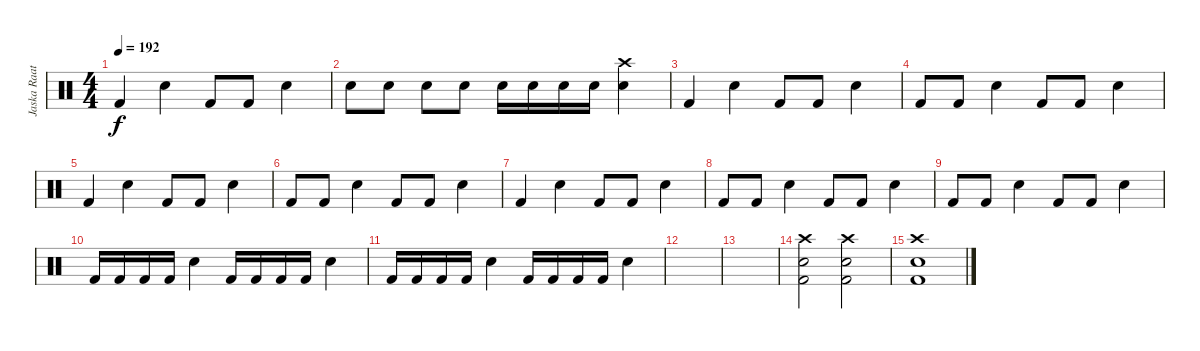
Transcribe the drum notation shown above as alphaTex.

\track ("Jaska Raatikainen" "Jaska Raat") {instrument percussion}
\staff {score}
\articulation defaults
\ts (4 4)
\tempo 192
\clef neutral
\ks c "Kick (hit) 2".4{dy f} "Snare (hit) 2".4 "Kick (hit) 2".8 "Kick (hit) 2".8 "Snare (hit) 2".4
|
"Snare (hit) 2".8 "Snare (hit) 2".8 "Snare (hit) 2".8 "Snare (hit) 2".8 "Snare (hit) 2".16 "Snare (hit) 2".16 "Snare (hit) 2".16 "Snare (hit) 2".16 ("Crash high (hit)" "Snare (hit) 2").4 |
"Kick (hit) 2".4 "Snare (hit) 2".4 "Kick (hit) 2".8 "Kick (hit) 2".8 "Snare (hit) 2".4 |
"Kick (hit) 2".8 "Kick (hit) 2".8 "Snare (hit) 2".4 "Kick (hit) 2".8 "Kick (hit) 2".8 "Snare (hit) 2".4 |
"Kick (hit) 2".4 "Snare (hit) 2".4 "Kick (hit) 2".8 "Kick (hit) 2".8 "Snare (hit) 2".4 |
"Kick (hit) 2".8 "Kick (hit) 2".8 "Snare (hit) 2".4 "Kick (hit) 2".8 "Kick (hit) 2".8 "Snare (hit) 2".4 |
"Kick (hit) 2".4 "Snare (hit) 2".4 "Kick (hit) 2".8 "Kick (hit) 2".8 "Snare (hit) 2".4 |
"Kick (hit) 2".8 "Kick (hit) 2".8 "Snare (hit) 2".4 "Kick (hit) 2".8 "Kick (hit) 2".8 "Snare (hit) 2".4 |
"Kick (hit) 2".8 "Kick (hit) 2".8 "Snare (hit) 2".4 "Kick (hit) 2".8 "Kick (hit) 2".8 "Snare (hit) 2".4 |
"Kick (hit) 2".16 "Kick (hit) 2".16 "Kick (hit) 2".16 "Kick (hit) 2".16 "Snare (hit) 2".4 "Kick (hit) 2".16 "Kick (hit) 2".16 "Kick (hit) 2".16 "Kick (hit) 2".16 "Snare (hit) 2".4 |
"Kick (hit) 2".16 "Kick (hit) 2".16 "Kick (hit) 2".16 "Kick (hit) 2".16 "Snare (hit) 2".4 "Kick (hit) 2".16 "Kick (hit) 2".16 "Kick (hit) 2".16 "Kick (hit) 2".16 "Snare (hit) 2".4 |
|
|
("Crash high (hit)" "Snare (hit) 2" "Kick (hit) 2").2 ("Crash high (hit)" "Snare (hit) 2" "Kick (hit) 2").2 |
("Crash high (hit)" "Snare (hit) 2" "Kick (hit) 2").1
